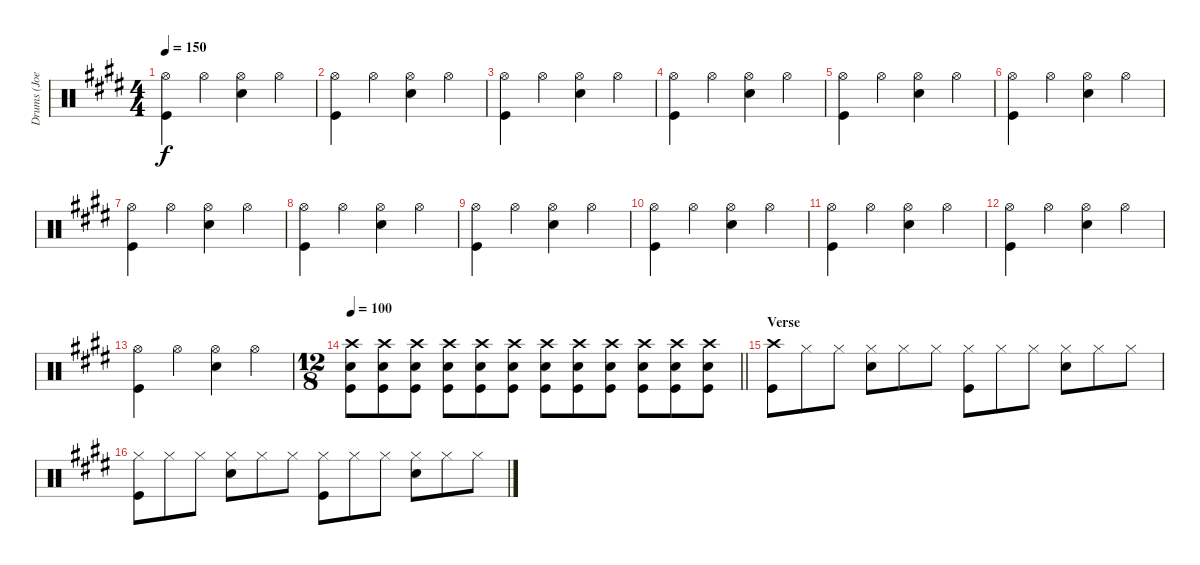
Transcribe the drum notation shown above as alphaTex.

\track ("Drums (Joey Kramer)" "Drums (Joe") {instrument percussion}
\staff {score}
\articulation defaults
\ts (4 4)
\tempo 150
\clef neutral
\ks c#minor
("Hi-Hat (open)" "Kick (hit)").4{dy f} "Hi-Hat (open)".4 ("Hi-Hat (open)" "Electric Snare (hit)").4 "Hi-Hat (open)".4 |
("Hi-Hat (open)" "Kick (hit)").4 "Hi-Hat (open)".4 ("Hi-Hat (open)" "Electric Snare (hit)").4 "Hi-Hat (open)".4 |
("Hi-Hat (open)" "Kick (hit)").4 "Hi-Hat (open)".4 ("Hi-Hat (open)" "Electric Snare (hit)").4 "Hi-Hat (open)".4 |
("Hi-Hat (open)" "Kick (hit)").4 "Hi-Hat (open)".4 ("Hi-Hat (open)" "Electric Snare (hit)").4 "Hi-Hat (open)".4 |
("Hi-Hat (open)" "Kick (hit)").4 "Hi-Hat (open)".4 ("Hi-Hat (open)" "Electric Snare (hit)").4 "Hi-Hat (open)".4 |
("Hi-Hat (open)" "Kick (hit)").4 "Hi-Hat (open)".4 ("Hi-Hat (open)" "Electric Snare (hit)").4 "Hi-Hat (open)".4 |
("Hi-Hat (open)" "Kick (hit)").4 "Hi-Hat (open)".4 ("Hi-Hat (open)" "Electric Snare (hit)").4 "Hi-Hat (open)".4 |
("Hi-Hat (open)" "Kick (hit)").4 "Hi-Hat (open)".4 ("Hi-Hat (open)" "Electric Snare (hit)").4 "Hi-Hat (open)".4 |
("Hi-Hat (open)" "Kick (hit)").4 "Hi-Hat (open)".4 ("Hi-Hat (open)" "Electric Snare (hit)").4 "Hi-Hat (open)".4 |
("Hi-Hat (open)" "Kick (hit)").4 "Hi-Hat (open)".4 ("Hi-Hat (open)" "Electric Snare (hit)").4 "Hi-Hat (open)".4 |
("Hi-Hat (open)" "Kick (hit)").4 "Hi-Hat (open)".4 ("Hi-Hat (open)" "Electric Snare (hit)").4 "Hi-Hat (open)".4 |
("Hi-Hat (open)" "Kick (hit)").4 "Hi-Hat (open)".4 ("Hi-Hat (open)" "Electric Snare (hit)").4 "Hi-Hat (open)".4 |
("Hi-Hat (open)" "Kick (hit)").4 "Hi-Hat (open)".4 ("Hi-Hat (open)" "Electric Snare (hit)").4 "Hi-Hat (open)".4 |
\ts (12 8)
\tempo 100
\barLineRight lightlight
("Crash high (hit)" "Electric Snare (hit)" "Kick (hit)").8 ("Crash high (hit)" "Electric Snare (hit)" "Kick (hit)").8 ("Crash high (hit)" "Electric Snare (hit)" "Kick (hit)").8 ("Crash high (hit)" "Electric Snare (hit)" "Kick (hit)").8 ("Crash high (hit)" "Electric Snare (hit)" "Kick (hit)").8 ("Crash high (hit)" "Electric Snare (hit)" "Kick (hit)").8 ("Crash high (hit)" "Electric Snare (hit)" "Kick (hit)").8 ("Crash high (hit)" "Electric Snare (hit)" "Kick (hit)").8 ("Crash high (hit)" "Electric Snare (hit)" "Kick (hit)").8 ("Crash high (hit)" "Electric Snare (hit)" "Kick (hit)").8 ("Crash high (hit)" "Electric Snare (hit)" "Kick (hit)").8 ("Crash high (hit)" "Electric Snare (hit)" "Kick (hit)").8 |
\section ("" "Verse")
("Crash high (hit)" "Kick (hit)").8 "Hi-Hat (closed)".8 "Hi-Hat (closed)".8 ("Hi-Hat (closed)" "Electric Snare (hit)").8 "Hi-Hat (closed)".8 "Hi-Hat (closed)".8 ("Hi-Hat (closed)" "Kick (hit)").8 "Hi-Hat (closed)".8 "Hi-Hat (closed)".8 ("Hi-Hat (closed)" "Electric Snare (hit)").8 "Hi-Hat (closed)".8 "Hi-Hat (closed)".8 |
("Hi-Hat (closed)" "Kick (hit)").8 "Hi-Hat (closed)".8 "Hi-Hat (closed)".8 ("Hi-Hat (closed)" "Electric Snare (hit)").8 "Hi-Hat (closed)".8 "Hi-Hat (closed)".8 ("Hi-Hat (closed)" "Kick (hit)").8 "Hi-Hat (closed)".8 "Hi-Hat (closed)".8 ("Hi-Hat (closed)" "Electric Snare (hit)").8 "Hi-Hat (closed)".8 "Hi-Hat (closed)".8
